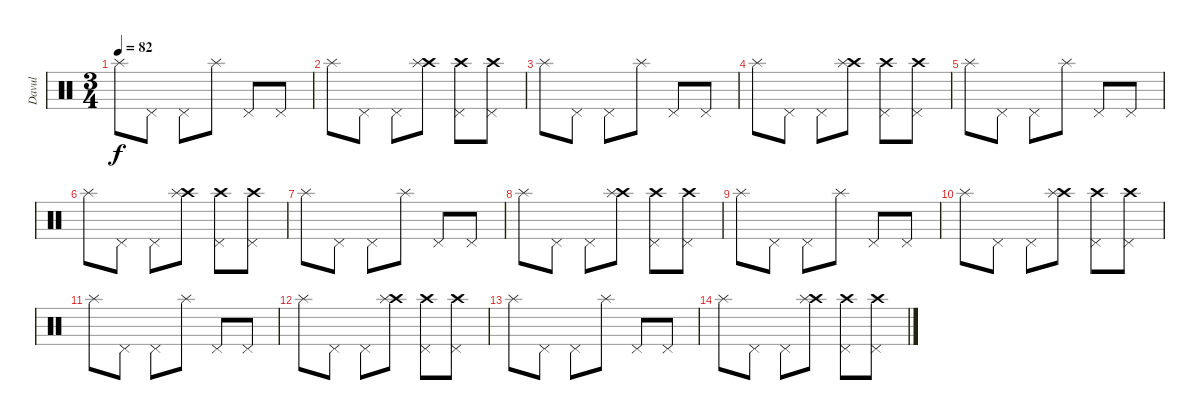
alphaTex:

\track ("Davul" "Davul") {instrument percussion}
\staff {score}
\articulation defaults
\ts (3 4)
\tempo 82
\clef neutral
\ks c "Splash (hit)".8{dy f} "Pedal Hi-Hat (hit)".8 "Pedal Hi-Hat (hit)".8 "Splash (hit)".8 "Pedal Hi-Hat (hit)".8 "Pedal Hi-Hat (hit)".8
|
"Splash (hit)".8 "Pedal Hi-Hat (hit)".8 "Pedal Hi-Hat (hit)".8 ("Crash high (hit)" "Splash (hit)").8 ("Crash high (hit)" "Pedal Hi-Hat (hit)").8 ("Crash high (hit)" "Pedal Hi-Hat (hit)").8 |
"Splash (hit)".8 "Pedal Hi-Hat (hit)".8 "Pedal Hi-Hat (hit)".8 "Splash (hit)".8 "Pedal Hi-Hat (hit)".8 "Pedal Hi-Hat (hit)".8 |
"Splash (hit)".8 "Pedal Hi-Hat (hit)".8 "Pedal Hi-Hat (hit)".8 ("Crash high (hit)" "Splash (hit)").8 ("Crash high (hit)" "Pedal Hi-Hat (hit)").8 ("Crash high (hit)" "Pedal Hi-Hat (hit)").8 |
"Splash (hit)".8 "Pedal Hi-Hat (hit)".8 "Pedal Hi-Hat (hit)".8 "Splash (hit)".8 "Pedal Hi-Hat (hit)".8 "Pedal Hi-Hat (hit)".8 |
"Splash (hit)".8 "Pedal Hi-Hat (hit)".8 "Pedal Hi-Hat (hit)".8 ("Crash high (hit)" "Splash (hit)").8 ("Crash high (hit)" "Pedal Hi-Hat (hit)").8 ("Crash high (hit)" "Pedal Hi-Hat (hit)").8 |
"Splash (hit)".8 "Pedal Hi-Hat (hit)".8 "Pedal Hi-Hat (hit)".8 "Splash (hit)".8 "Pedal Hi-Hat (hit)".8 "Pedal Hi-Hat (hit)".8 |
"Splash (hit)".8 "Pedal Hi-Hat (hit)".8 "Pedal Hi-Hat (hit)".8 ("Crash high (hit)" "Splash (hit)").8 ("Crash high (hit)" "Pedal Hi-Hat (hit)").8 ("Crash high (hit)" "Pedal Hi-Hat (hit)").8 |
"Splash (hit)".8 "Pedal Hi-Hat (hit)".8 "Pedal Hi-Hat (hit)".8 "Splash (hit)".8 "Pedal Hi-Hat (hit)".8 "Pedal Hi-Hat (hit)".8 |
"Splash (hit)".8 "Pedal Hi-Hat (hit)".8 "Pedal Hi-Hat (hit)".8 ("Crash high (hit)" "Splash (hit)").8 ("Crash high (hit)" "Pedal Hi-Hat (hit)").8 ("Crash high (hit)" "Pedal Hi-Hat (hit)").8 |
"Splash (hit)".8 "Pedal Hi-Hat (hit)".8 "Pedal Hi-Hat (hit)".8 "Splash (hit)".8 "Pedal Hi-Hat (hit)".8 "Pedal Hi-Hat (hit)".8 |
"Splash (hit)".8 "Pedal Hi-Hat (hit)".8 "Pedal Hi-Hat (hit)".8 ("Crash high (hit)" "Splash (hit)").8 ("Crash high (hit)" "Pedal Hi-Hat (hit)").8 ("Crash high (hit)" "Pedal Hi-Hat (hit)").8 |
"Splash (hit)".8 "Pedal Hi-Hat (hit)".8 "Pedal Hi-Hat (hit)".8 "Splash (hit)".8 "Pedal Hi-Hat (hit)".8 "Pedal Hi-Hat (hit)".8 |
"Splash (hit)".8 "Pedal Hi-Hat (hit)".8 "Pedal Hi-Hat (hit)".8 ("Crash high (hit)" "Splash (hit)").8 ("Crash high (hit)" "Pedal Hi-Hat (hit)").8 ("Crash high (hit)" "Pedal Hi-Hat (hit)").8
